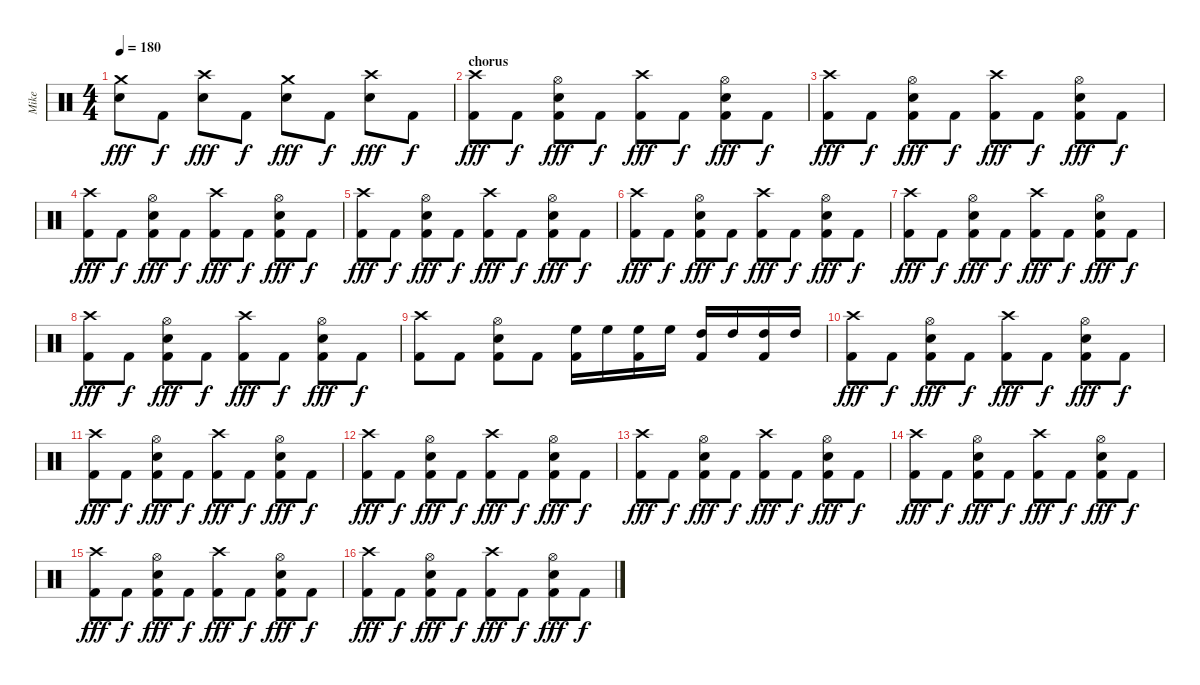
\track ("Mike" "Mike") {instrument percussion}
\staff {score}
\articulation defaults
\ts (4 4)
\tempo 180
\clef neutral
\ks c
("Crash medium (hit)" "Snare (hit) 2").8{dy fff} "Kick (hit) 2".8{dy f} ("Crash high (hit)" "Snare (hit) 2").8{dy fff} "Kick (hit) 2".8{dy f} ("Crash medium (hit)" "Snare (hit) 2").8{dy fff} "Kick (hit) 2".8{dy f} ("Crash high (hit)" "Snare (hit) 2").8{dy fff} "Kick (hit) 2".8{dy f} |
\section ("" "chorus")
("Crash high (hit)" "Kick (hit) 2").8{dy fff} "Kick (hit) 2".8{dy f} ("Hi-Hat (open)" "Snare (hit) 2" "Kick (hit) 2").8{dy fff} "Kick (hit) 2".8{dy f} ("Crash high (hit)" "Kick (hit) 2").8{dy fff} "Kick (hit) 2".8{dy f} ("Hi-Hat (open)" "Snare (hit) 2" "Kick (hit) 2").8{dy fff} "Kick (hit) 2".8{dy f} |
("Crash high (hit)" "Kick (hit) 2").8{dy fff} "Kick (hit) 2".8{dy f} ("Hi-Hat (open)" "Snare (hit) 2" "Kick (hit) 2").8{dy fff} "Kick (hit) 2".8{dy f} ("Crash high (hit)" "Kick (hit) 2").8{dy fff} "Kick (hit) 2".8{dy f} ("Hi-Hat (open)" "Snare (hit) 2" "Kick (hit) 2").8{dy fff} "Kick (hit) 2".8{dy f} |
("Crash high (hit)" "Kick (hit) 2").8{dy fff} "Kick (hit) 2".8{dy f} ("Hi-Hat (open)" "Snare (hit) 2" "Kick (hit) 2").8{dy fff} "Kick (hit) 2".8{dy f} ("Crash high (hit)" "Kick (hit) 2").8{dy fff} "Kick (hit) 2".8{dy f} ("Hi-Hat (open)" "Snare (hit) 2" "Kick (hit) 2").8{dy fff} "Kick (hit) 2".8{dy f} |
("Crash high (hit)" "Kick (hit) 2").8{dy fff} "Kick (hit) 2".8{dy f} ("Hi-Hat (open)" "Snare (hit) 2" "Kick (hit) 2").8{dy fff} "Kick (hit) 2".8{dy f} ("Crash high (hit)" "Kick (hit) 2").8{dy fff} "Kick (hit) 2".8{dy f} ("Hi-Hat (open)" "Snare (hit) 2" "Kick (hit) 2").8{dy fff} "Kick (hit) 2".8{dy f} |
("Crash high (hit)" "Kick (hit) 2").8{dy fff} "Kick (hit) 2".8{dy f} ("Hi-Hat (open)" "Snare (hit) 2" "Kick (hit) 2").8{dy fff} "Kick (hit) 2".8{dy f} ("Crash high (hit)" "Kick (hit) 2").8{dy fff} "Kick (hit) 2".8{dy f} ("Hi-Hat (open)" "Snare (hit) 2" "Kick (hit) 2").8{dy fff} "Kick (hit) 2".8{dy f} |
("Crash high (hit)" "Kick (hit) 2").8{dy fff} "Kick (hit) 2".8{dy f} ("Hi-Hat (open)" "Snare (hit) 2" "Kick (hit) 2").8{dy fff} "Kick (hit) 2".8{dy f} ("Crash high (hit)" "Kick (hit) 2").8{dy fff} "Kick (hit) 2".8{dy f} ("Hi-Hat (open)" "Snare (hit) 2" "Kick (hit) 2").8{dy fff} "Kick (hit) 2".8{dy f} |
("Crash high (hit)" "Kick (hit) 2").8{dy fff} "Kick (hit) 2".8{dy f} ("Hi-Hat (open)" "Snare (hit) 2" "Kick (hit) 2").8{dy fff} "Kick (hit) 2".8{dy f} ("Crash high (hit)" "Kick (hit) 2").8{dy fff} "Kick (hit) 2".8{dy f} ("Hi-Hat (open)" "Snare (hit) 2" "Kick (hit) 2").8{dy fff} "Kick (hit) 2".8{dy f} |
("Crash high (hit)" "Kick (hit) 2").8 "Kick (hit) 2".8 ("Hi-Hat (open)" "Snare (hit) 2" "Kick (hit) 2").8 "Kick (hit) 2".8 ("High Floor Tom (hit)" "Kick (hit) 2").16 "High Floor Tom (hit)".16 ("High Floor Tom (hit)" "Kick (hit) 2").16 "High Floor Tom (hit)".16 ("High Tom (hit)" "Kick (hit) 2").16 "High Tom (hit)".16 ("High Tom (hit)" "Kick (hit) 2").16 "High Tom (hit)".16 |
("Crash high (hit)" "Kick (hit) 2").8{dy fff} "Kick (hit) 2".8{dy f} ("Hi-Hat (open)" "Snare (hit) 2" "Kick (hit) 2").8{dy fff} "Kick (hit) 2".8{dy f} ("Crash high (hit)" "Kick (hit) 2").8{dy fff} "Kick (hit) 2".8{dy f} ("Hi-Hat (open)" "Snare (hit) 2" "Kick (hit) 2").8{dy fff} "Kick (hit) 2".8{dy f} |
("Crash high (hit)" "Kick (hit) 2").8{dy fff} "Kick (hit) 2".8{dy f} ("Hi-Hat (open)" "Snare (hit) 2" "Kick (hit) 2").8{dy fff} "Kick (hit) 2".8{dy f} ("Crash high (hit)" "Kick (hit) 2").8{dy fff} "Kick (hit) 2".8{dy f} ("Hi-Hat (open)" "Snare (hit) 2" "Kick (hit) 2").8{dy fff} "Kick (hit) 2".8{dy f} |
("Crash high (hit)" "Kick (hit) 2").8{dy fff} "Kick (hit) 2".8{dy f} ("Hi-Hat (open)" "Snare (hit) 2" "Kick (hit) 2").8{dy fff} "Kick (hit) 2".8{dy f} ("Crash high (hit)" "Kick (hit) 2").8{dy fff} "Kick (hit) 2".8{dy f} ("Hi-Hat (open)" "Snare (hit) 2" "Kick (hit) 2").8{dy fff} "Kick (hit) 2".8{dy f} |
("Crash high (hit)" "Kick (hit) 2").8{dy fff} "Kick (hit) 2".8{dy f} ("Hi-Hat (open)" "Snare (hit) 2" "Kick (hit) 2").8{dy fff} "Kick (hit) 2".8{dy f} ("Crash high (hit)" "Kick (hit) 2").8{dy fff} "Kick (hit) 2".8{dy f} ("Hi-Hat (open)" "Snare (hit) 2" "Kick (hit) 2").8{dy fff} "Kick (hit) 2".8{dy f} |
("Crash high (hit)" "Kick (hit) 2").8{dy fff} "Kick (hit) 2".8{dy f} ("Hi-Hat (open)" "Snare (hit) 2" "Kick (hit) 2").8{dy fff} "Kick (hit) 2".8{dy f} ("Crash high (hit)" "Kick (hit) 2").8{dy fff} "Kick (hit) 2".8{dy f} ("Hi-Hat (open)" "Snare (hit) 2" "Kick (hit) 2").8{dy fff} "Kick (hit) 2".8{dy f} |
("Crash high (hit)" "Kick (hit) 2").8{dy fff} "Kick (hit) 2".8{dy f} ("Hi-Hat (open)" "Snare (hit) 2" "Kick (hit) 2").8{dy fff} "Kick (hit) 2".8{dy f} ("Crash high (hit)" "Kick (hit) 2").8{dy fff} "Kick (hit) 2".8{dy f} ("Hi-Hat (open)" "Snare (hit) 2" "Kick (hit) 2").8{dy fff} "Kick (hit) 2".8{dy f} |
("Crash high (hit)" "Kick (hit) 2").8{dy fff} "Kick (hit) 2".8{dy f} ("Hi-Hat (open)" "Snare (hit) 2" "Kick (hit) 2").8{dy fff} "Kick (hit) 2".8{dy f} ("Crash high (hit)" "Kick (hit) 2").8{dy fff} "Kick (hit) 2".8{dy f} ("Hi-Hat (open)" "Snare (hit) 2" "Kick (hit) 2").8{dy fff} "Kick (hit) 2".8{dy f}
